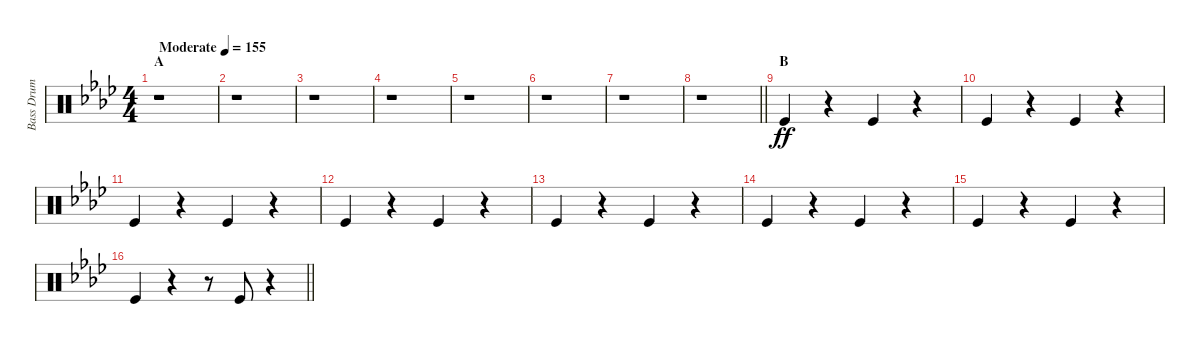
\track ("Bass Drum" "Bass Drum") {instrument percussion}
\staff {score}
\articulation defaults
\ts (4 4)
\section ("" "A")
\tempo (155 "Moderate")
\clef neutral
\ks ab
r.1{dy ff} |
r.1 |
r.1 |
r.1 |
r.1 |
r.1 |
r.1 |
\barLineRight lightlight
r.1 |
\section ("" "B")
"Kick (hit)".4 r.4 "Kick (hit)".4 r.4 |
"Kick (hit)".4 r.4 "Kick (hit)".4 r.4 |
"Kick (hit)".4 r.4 "Kick (hit)".4 r.4 |
"Kick (hit)".4 r.4 "Kick (hit)".4 r.4 |
"Kick (hit)".4 r.4 "Kick (hit)".4 r.4 |
"Kick (hit)".4 r.4 "Kick (hit)".4 r.4 |
"Kick (hit)".4 r.4 "Kick (hit)".4 r.4 |
\barLineRight lightlight "Kick (hit)".4
r.4 r.8 "Kick (hit)".8 r.4
